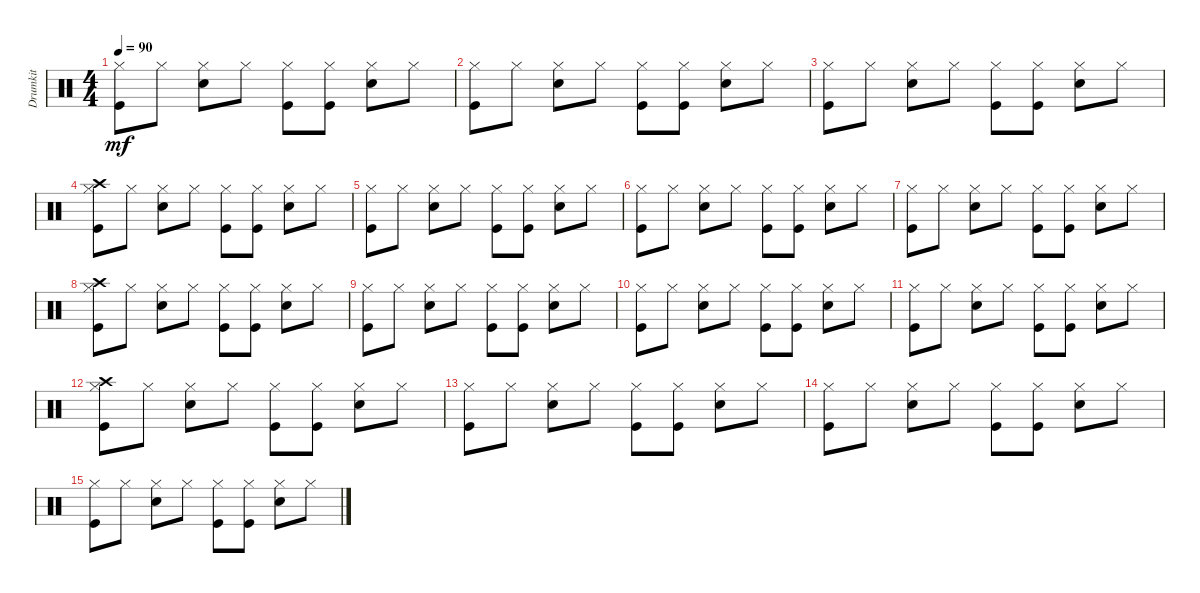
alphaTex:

\track ("Drumkit" "Drumkit") {instrument percussion}
\staff {score}
\articulation defaults
\ts (4 4)
\tempo 90
\clef neutral
\ks c
("Hi-Hat (closed)" "Kick (hit)").8{dy mf} "Hi-Hat (closed)".8 ("Hi-Hat (closed)" "Snare (hit) 2").8 "Hi-Hat (closed)".8 ("Hi-Hat (closed)" "Kick (hit)").8 ("Hi-Hat (closed)" "Kick (hit)").8 ("Hi-Hat (closed)" "Snare (hit) 2").8 "Hi-Hat (closed)".8 |
("Hi-Hat (closed)" "Kick (hit)").8 "Hi-Hat (closed)".8 ("Hi-Hat (closed)" "Snare (hit) 2").8 "Hi-Hat (closed)".8 ("Hi-Hat (closed)" "Kick (hit)").8 ("Hi-Hat (closed)" "Kick (hit)").8 ("Hi-Hat (closed)" "Snare (hit) 2").8 "Hi-Hat (closed)".8 |
("Hi-Hat (closed)" "Kick (hit)").8 "Hi-Hat (closed)".8 ("Hi-Hat (closed)" "Snare (hit) 2").8 "Hi-Hat (closed)".8 ("Hi-Hat (closed)" "Kick (hit)").8 ("Hi-Hat (closed)" "Kick (hit)").8 ("Hi-Hat (closed)" "Snare (hit) 2").8 "Hi-Hat (closed)".8 |
("Crash high (hit)" "Hi-Hat (closed)" "Kick (hit)").8 "Hi-Hat (closed)".8 ("Hi-Hat (closed)" "Snare (hit) 2").8 "Hi-Hat (closed)".8 ("Hi-Hat (closed)" "Kick (hit)").8 ("Hi-Hat (closed)" "Kick (hit)").8 ("Hi-Hat (closed)" "Snare (hit) 2").8 "Hi-Hat (closed)".8 |
("Hi-Hat (closed)" "Kick (hit)").8 "Hi-Hat (closed)".8 ("Hi-Hat (closed)" "Snare (hit) 2").8 "Hi-Hat (closed)".8 ("Hi-Hat (closed)" "Kick (hit)").8 ("Hi-Hat (closed)" "Kick (hit)").8 ("Hi-Hat (closed)" "Snare (hit) 2").8 "Hi-Hat (closed)".8 |
("Hi-Hat (closed)" "Kick (hit)").8 "Hi-Hat (closed)".8 ("Hi-Hat (closed)" "Snare (hit) 2").8 "Hi-Hat (closed)".8 ("Hi-Hat (closed)" "Kick (hit)").8 ("Hi-Hat (closed)" "Kick (hit)").8 ("Hi-Hat (closed)" "Snare (hit) 2").8 "Hi-Hat (closed)".8 |
("Hi-Hat (closed)" "Kick (hit)").8 "Hi-Hat (closed)".8 ("Hi-Hat (closed)" "Snare (hit) 2").8 "Hi-Hat (closed)".8 ("Hi-Hat (closed)" "Kick (hit)").8 ("Hi-Hat (closed)" "Kick (hit)").8 ("Hi-Hat (closed)" "Snare (hit) 2").8 "Hi-Hat (closed)".8 |
("Crash high (hit)" "Hi-Hat (closed)" "Kick (hit)").8 "Hi-Hat (closed)".8 ("Hi-Hat (closed)" "Snare (hit) 2").8 "Hi-Hat (closed)".8 ("Hi-Hat (closed)" "Kick (hit)").8 ("Hi-Hat (closed)" "Kick (hit)").8 ("Hi-Hat (closed)" "Snare (hit) 2").8 "Hi-Hat (closed)".8 |
("Hi-Hat (closed)" "Kick (hit)").8 "Hi-Hat (closed)".8 ("Hi-Hat (closed)" "Snare (hit) 2").8 "Hi-Hat (closed)".8 ("Hi-Hat (closed)" "Kick (hit)").8 ("Hi-Hat (closed)" "Kick (hit)").8 ("Hi-Hat (closed)" "Snare (hit) 2").8 "Hi-Hat (closed)".8 |
("Hi-Hat (closed)" "Kick (hit)").8 "Hi-Hat (closed)".8 ("Hi-Hat (closed)" "Snare (hit) 2").8 "Hi-Hat (closed)".8 ("Hi-Hat (closed)" "Kick (hit)").8 ("Hi-Hat (closed)" "Kick (hit)").8 ("Hi-Hat (closed)" "Snare (hit) 2").8 "Hi-Hat (closed)".8 |
("Hi-Hat (closed)" "Kick (hit)").8 "Hi-Hat (closed)".8 ("Hi-Hat (closed)" "Snare (hit) 2").8 "Hi-Hat (closed)".8 ("Hi-Hat (closed)" "Kick (hit)").8 ("Hi-Hat (closed)" "Kick (hit)").8 ("Hi-Hat (closed)" "Snare (hit) 2").8 "Hi-Hat (closed)".8 |
("Crash high (hit)" "Hi-Hat (closed)" "Kick (hit)").8 "Hi-Hat (closed)".8 ("Hi-Hat (closed)" "Snare (hit) 2").8 "Hi-Hat (closed)".8 ("Hi-Hat (closed)" "Kick (hit)").8 ("Hi-Hat (closed)" "Kick (hit)").8 ("Hi-Hat (closed)" "Snare (hit) 2").8 "Hi-Hat (closed)".8 |
("Hi-Hat (closed)" "Kick (hit)").8 "Hi-Hat (closed)".8 ("Hi-Hat (closed)" "Snare (hit) 2").8 "Hi-Hat (closed)".8 ("Hi-Hat (closed)" "Kick (hit)").8 ("Hi-Hat (closed)" "Kick (hit)").8 ("Hi-Hat (closed)" "Snare (hit) 2").8 "Hi-Hat (closed)".8 |
("Hi-Hat (closed)" "Kick (hit)").8 "Hi-Hat (closed)".8 ("Hi-Hat (closed)" "Snare (hit) 2").8 "Hi-Hat (closed)".8 ("Hi-Hat (closed)" "Kick (hit)").8 ("Hi-Hat (closed)" "Kick (hit)").8 ("Hi-Hat (closed)" "Snare (hit) 2").8 "Hi-Hat (closed)".8 |
("Hi-Hat (closed)" "Kick (hit)").8 "Hi-Hat (closed)".8 ("Hi-Hat (closed)" "Snare (hit) 2").8 "Hi-Hat (closed)".8 ("Hi-Hat (closed)" "Kick (hit)").8 ("Hi-Hat (closed)" "Kick (hit)").8 ("Hi-Hat (closed)" "Snare (hit) 2").8 "Hi-Hat (closed)".8
